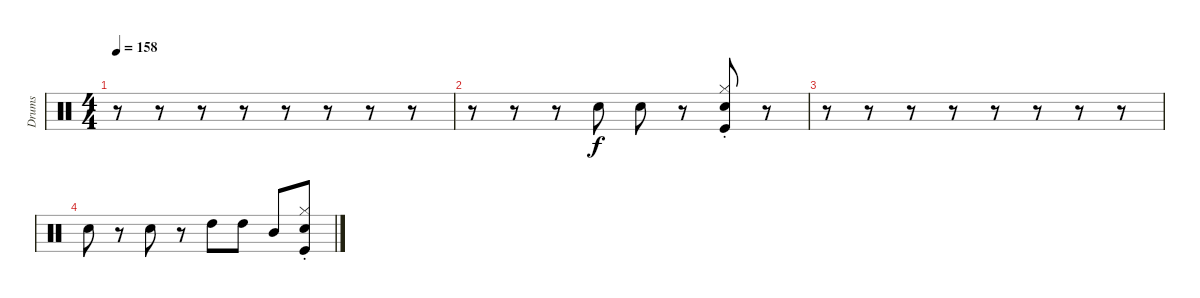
\track ("Drums" "Drums") {instrument percussion}
\staff {score}
\articulation defaults
\ts (4 4)
\tempo 158
\clef neutral
\ks c
r.8{dy f} r.8 r.8 r.8 r.8 r.8 r.8 r.8 |
r.8 r.8 r.8 "Snare (hit) 2".8 "Snare (hit) 2".8 r.8 ("Hi-Hat (closed)" "Snare (hit) 2" "Kick (hit)"{st}).8 r.8 |
r.8 r.8 r.8 r.8 r.8 r.8 r.8 r.8 |
"Snare (hit) 2".8 r.8 "Snare (hit) 2".8 r.8 "High Tom (hit)".8 "High Tom (hit)".8 "Mid Tom (hit)".8 ("Hi-Hat (closed)" "Snare (hit) 2" "Kick (hit)"{st}).8
